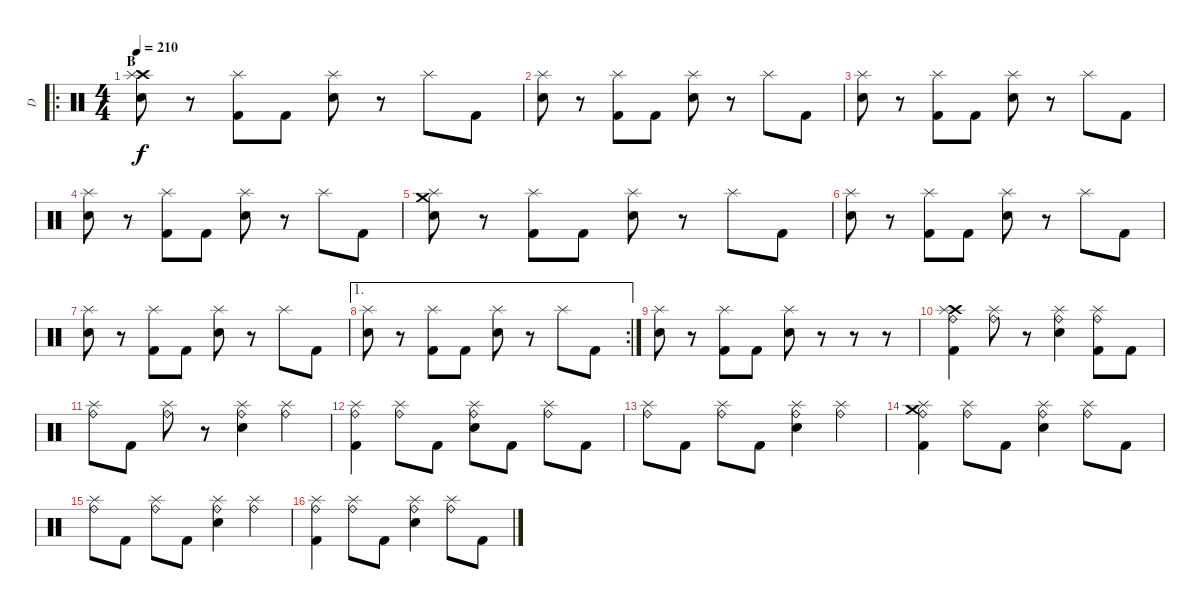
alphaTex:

\track ("D" "D") {instrument percussion}
\staff {score}
\articulation defaults
\ro
\ts (4 4)
\section ("" "B")
\tempo 210
\clef neutral
\ks c
("Crash high (hit)" "Electric Snare (hit)" "Splash (hit)").8{dy f} r.8 ("Kick (hit) 2" "Splash (hit)").8 "Kick (hit) 2".8 ("Electric Snare (hit)" "Splash (hit)").8 r.8 "Splash (hit)".8 "Kick (hit) 2".8 |
("Electric Snare (hit)" "Splash (hit)").8 r.8 ("Kick (hit) 2" "Splash (hit)").8 "Kick (hit) 2".8 ("Electric Snare (hit)" "Splash (hit)").8 r.8 "Splash (hit)".8 "Kick (hit) 2".8 |
("Electric Snare (hit)" "Splash (hit)").8 r.8 ("Kick (hit) 2" "Splash (hit)").8 "Kick (hit) 2".8 ("Electric Snare (hit)" "Splash (hit)").8 r.8 "Splash (hit)".8 "Kick (hit) 2".8 |
("Electric Snare (hit)" "Splash (hit)").8 r.8 ("Kick (hit) 2" "Splash (hit)").8 "Kick (hit) 2".8 ("Electric Snare (hit)" "Splash (hit)").8 r.8 "Splash (hit)".8 "Kick (hit) 2".8 |
("Crash medium (hit)" "Electric Snare (hit)" "Splash (hit)").8 r.8 ("Kick (hit) 2" "Splash (hit)").8 "Kick (hit) 2".8 ("Electric Snare (hit)" "Splash (hit)").8 r.8 "Splash (hit)".8 "Kick (hit) 2".8 |
("Electric Snare (hit)" "Splash (hit)").8 r.8 ("Kick (hit) 2" "Splash (hit)").8 "Kick (hit) 2".8 ("Electric Snare (hit)" "Splash (hit)").8 r.8 "Splash (hit)".8 "Kick (hit) 2".8 |
("Electric Snare (hit)" "Splash (hit)").8 r.8 ("Kick (hit) 2" "Splash (hit)").8 "Kick (hit) 2".8 ("Electric Snare (hit)" "Splash (hit)").8 r.8 "Splash (hit)".8 "Kick (hit) 2".8 |
\ae 1
\rc 2
("Electric Snare (hit)" "Splash (hit)").8 r.8 ("Kick (hit) 2" "Splash (hit)").8 "Kick (hit) 2".8 ("Electric Snare (hit)" "Splash (hit)").8 r.8 "Splash (hit)".8 "Kick (hit) 2".8 |
("Electric Snare (hit)" "Splash (hit)").8 r.8 ("Kick (hit) 2" "Splash (hit)").8 "Kick (hit) 2".8 ("Electric Snare (hit)" "Splash (hit)").8 r.8 r.8 r.8 |
("Crash high (hit)" "Kick (hit) 2" "Ride (bell)" "Splash (hit)").4 ("Ride (bell)" "Splash (hit)").8 r.8 ("Electric Snare (hit)" "Ride (bell)" "Splash (hit)").4 ("Kick (hit) 2" "Ride (bell)" "Splash (hit)").8 "Kick (hit) 2".8 |
("Ride (bell)" "Splash (hit)").8 "Kick (hit) 2".8 ("Ride (bell)" "Splash (hit)").8 r.8 ("Electric Snare (hit)" "Ride (bell)" "Splash (hit)").4 ("Ride (bell)" "Splash (hit)").4 |
("Kick (hit) 2" "Ride (bell)" "Splash (hit)").4 ("Ride (bell)" "Splash (hit)").8 "Kick (hit) 2".8 ("Electric Snare (hit)" "Ride (bell)" "Splash (hit)").8 "Kick (hit) 2".8 ("Ride (bell)" "Splash (hit)").8 "Kick (hit) 2".8 |
("Ride (bell)" "Splash (hit)").8 "Kick (hit) 2".8 ("Ride (bell)" "Splash (hit)").8 "Kick (hit) 2".8 ("Electric Snare (hit)" "Ride (bell)" "Splash (hit)").4 ("Ride (bell)" "Splash (hit)").4 |
("Crash medium (hit)" "Kick (hit) 2" "Ride (bell)" "Splash (hit)").4 ("Ride (bell)" "Splash (hit)").8 "Kick (hit) 2".8 ("Electric Snare (hit)" "Ride (bell)" "Splash (hit)").4 ("Ride (bell)" "Splash (hit)").8 "Kick (hit) 2".8 |
("Ride (bell)" "Splash (hit)").8 "Kick (hit) 2".8 ("Ride (bell)" "Splash (hit)").8 "Kick (hit) 2".8 ("Electric Snare (hit)" "Ride (bell)" "Splash (hit)").4 ("Ride (bell)" "Splash (hit)").4 |
("Kick (hit) 2" "Ride (bell)" "Splash (hit)").4 ("Ride (bell)" "Splash (hit)").8 "Kick (hit) 2".8 ("Electric Snare (hit)" "Ride (bell)" "Splash (hit)").4 ("Ride (bell)" "Splash (hit)").8 "Kick (hit) 2".8
